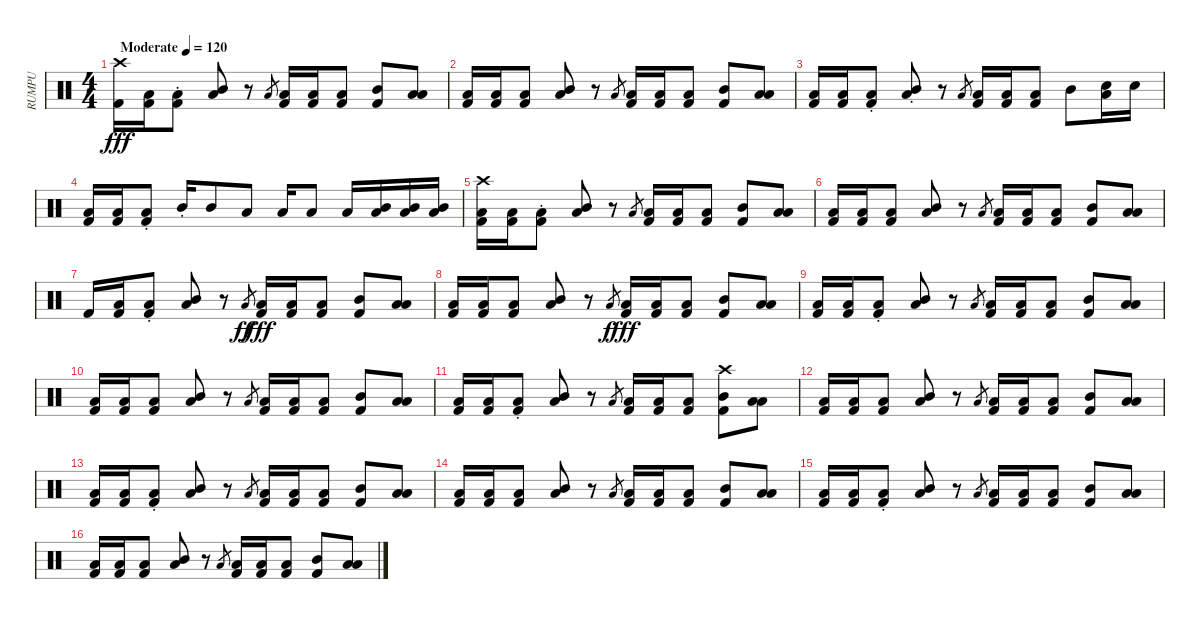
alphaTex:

\track ("RUMPU" "RUMPU") {instrument percussion}
\staff {score}
\articulation defaults
\ts (4 4)
\tempo (120 "Moderate")
\clef neutral
\ks c
("Crash high (hit)" "Kick (hit) 2").16{dy fff} ("Low Floor Tom (hit)" "Kick (hit) 2").16 ("Low Floor Tom (hit)" "Kick (hit) 2"{st}).8 ("Low Floor Tom (hit)" "Mid Tom (hit)").8 r.8 "Low Floor Tom (hit)".8{gr} ("Low Floor Tom (hit)" "Kick (hit) 2").16 ("Low Floor Tom (hit)" "Kick (hit) 2").16 ("Low Floor Tom (hit)" "Kick (hit) 2").8 ("Mid Tom (hit)" "Kick (hit) 2").8 ("Low Floor Tom (hit)" "Low Tom (hit)").8 |
("Low Floor Tom (hit)" "Kick (hit) 2").16 ("Low Floor Tom (hit)" "Kick (hit) 2").16 ("Low Floor Tom (hit)" "Kick (hit) 2").8 ("Low Floor Tom (hit)" "Mid Tom (hit)").8 r.8 "Low Floor Tom (hit)".8{gr} ("Low Floor Tom (hit)" "Kick (hit) 2").16 ("Low Floor Tom (hit)" "Kick (hit) 2").16 ("Low Floor Tom (hit)" "Kick (hit) 2").8 ("Mid Tom (hit)" "Kick (hit) 2").8 ("Low Floor Tom (hit)" "Low Tom (hit)").8 |
("Low Floor Tom (hit)" "Kick (hit) 2").16 ("Low Floor Tom (hit)" "Kick (hit) 2").16 ("Low Floor Tom (hit)" "Kick (hit) 2"{st}).8 ("Low Floor Tom (hit)"{st} "Mid Tom (hit)").8 r.8 "Low Floor Tom (hit)".8{gr} ("Low Floor Tom (hit)" "Kick (hit) 2").16 ("Low Floor Tom (hit)" "Kick (hit) 2").16 ("Low Floor Tom (hit)" "Kick (hit) 2").8 "Mid Tom (hit)".8 ("Low Floor Tom (hit)" "Electric Snare (hit)").16 "Electric Snare (hit)".16 |
("Low Floor Tom (hit)" "Kick (hit) 2").16 ("Low Floor Tom (hit)" "Kick (hit) 2").16 ("Low Floor Tom (hit)"{st} "Kick (hit) 2").8 "Mid Tom (hit)"{st}.16 "Mid Tom (hit)".8 "Low Floor Tom (hit)".8 "Low Floor Tom (hit)".16 "Low Floor Tom (hit)".8 "Low Floor Tom (hit)".16 ("Low Floor Tom (hit)" "Mid Tom (hit)").16 ("Low Floor Tom (hit)" "Mid Tom (hit)").16 ("Low Floor Tom (hit)" "Mid Tom (hit)").16 |
("Low Floor Tom (hit)" "Crash high (hit)" "Kick (hit) 2").16 ("Low Floor Tom (hit)" "Kick (hit) 2").16 ("Low Floor Tom (hit)" "Kick (hit) 2"{st}).8 ("Low Floor Tom (hit)" "Mid Tom (hit)").8 r.8 "Low Floor Tom (hit)".8{gr} ("Low Floor Tom (hit)" "Kick (hit) 2").16 ("Low Floor Tom (hit)" "Kick (hit) 2").16 ("Low Floor Tom (hit)" "Kick (hit) 2").8 ("Mid Tom (hit)" "Kick (hit) 2").8 ("Low Floor Tom (hit)" "Low Tom (hit)").8 |
("Low Floor Tom (hit)" "Kick (hit) 2").16 ("Low Floor Tom (hit)" "Kick (hit) 2").16 ("Low Floor Tom (hit)" "Kick (hit) 2").8 ("Low Floor Tom (hit)" "Mid Tom (hit)").8 r.8 "Low Floor Tom (hit)".8{gr} ("Low Floor Tom (hit)" "Kick (hit) 2").16 ("Low Floor Tom (hit)" "Kick (hit) 2").16 ("Low Floor Tom (hit)" "Kick (hit) 2").8 ("Mid Tom (hit)" "Kick (hit) 2").8 ("Low Floor Tom (hit)" "Low Tom (hit)").8 |
"Kick (hit) 2".16 ("Low Floor Tom (hit)" "Kick (hit) 2").16 ("Low Floor Tom (hit)" "Kick (hit) 2"{st}).8 ("Low Floor Tom (hit)" "Mid Tom (hit)").8 r.8 "Low Floor Tom (hit)".8{gr dy ff} ("Low Floor Tom (hit)" "Kick (hit) 2").16{dy fff} ("Low Floor Tom (hit)" "Kick (hit) 2").16 ("Low Floor Tom (hit)" "Kick (hit) 2").8 ("Mid Tom (hit)" "Kick (hit) 2").8 ("Low Floor Tom (hit)" "Low Tom (hit)").8 |
("Low Floor Tom (hit)" "Kick (hit) 2").16 ("Low Floor Tom (hit)" "Kick (hit) 2").16 ("Low Floor Tom (hit)" "Kick (hit) 2").8 ("Low Floor Tom (hit)" "Mid Tom (hit)").8 r.8 "Low Floor Tom (hit)".8{gr dy f} ("Low Floor Tom (hit)" "Kick (hit) 2").16{dy fff} ("Low Floor Tom (hit)" "Kick (hit) 2").16 ("Low Floor Tom (hit)" "Kick (hit) 2").8 ("Mid Tom (hit)" "Kick (hit) 2").8 ("Low Floor Tom (hit)" "Low Tom (hit)").8 |
("Low Floor Tom (hit)" "Kick (hit) 2").16 ("Low Floor Tom (hit)" "Kick (hit) 2").16 ("Low Floor Tom (hit)" "Kick (hit) 2"{st}).8 ("Low Floor Tom (hit)" "Mid Tom (hit)").8 r.8 "Low Floor Tom (hit)".8{gr} ("Low Floor Tom (hit)" "Kick (hit) 2").16 ("Low Floor Tom (hit)" "Kick (hit) 2").16 ("Low Floor Tom (hit)" "Kick (hit) 2").8 ("Mid Tom (hit)" "Kick (hit) 2").8 ("Low Floor Tom (hit)" "Low Tom (hit)").8 |
("Low Floor Tom (hit)" "Kick (hit) 2").16 ("Low Floor Tom (hit)" "Kick (hit) 2").16 ("Low Floor Tom (hit)" "Kick (hit) 2").8 ("Low Floor Tom (hit)" "Mid Tom (hit)").8 r.8 "Low Floor Tom (hit)".8{gr} ("Low Floor Tom (hit)" "Kick (hit) 2").16 ("Low Floor Tom (hit)" "Kick (hit) 2").16 ("Low Floor Tom (hit)" "Kick (hit) 2").8 ("Mid Tom (hit)" "Kick (hit) 2").8 ("Low Floor Tom (hit)" "Low Tom (hit)").8 |
("Low Floor Tom (hit)" "Kick (hit) 2").16 ("Low Floor Tom (hit)" "Kick (hit) 2").16 ("Low Floor Tom (hit)" "Kick (hit) 2"{st}).8 ("Low Floor Tom (hit)" "Mid Tom (hit)").8 r.8 "Low Floor Tom (hit)".8{gr} ("Low Floor Tom (hit)" "Kick (hit) 2").16 ("Low Floor Tom (hit)" "Kick (hit) 2").16 ("Low Floor Tom (hit)" "Kick (hit) 2").8 ("Mid Tom (hit)" "Crash high (hit)" "Kick (hit) 2").8 ("Low Floor Tom (hit)" "Low Tom (hit)").8 |
("Low Floor Tom (hit)" "Kick (hit) 2").16 ("Low Floor Tom (hit)" "Kick (hit) 2").16 ("Low Floor Tom (hit)" "Kick (hit) 2").8 ("Low Floor Tom (hit)" "Mid Tom (hit)").8 r.8 "Low Floor Tom (hit)".8{gr} ("Low Floor Tom (hit)" "Kick (hit) 2").16 ("Low Floor Tom (hit)" "Kick (hit) 2").16 ("Low Floor Tom (hit)" "Kick (hit) 2").8 ("Mid Tom (hit)" "Kick (hit) 2").8 ("Low Floor Tom (hit)" "Low Tom (hit)").8 |
("Low Floor Tom (hit)" "Kick (hit) 2").16 ("Low Floor Tom (hit)" "Kick (hit) 2").16 ("Low Floor Tom (hit)" "Kick (hit) 2"{st}).8 ("Low Floor Tom (hit)" "Mid Tom (hit)").8 r.8 "Low Floor Tom (hit)".8{gr} ("Low Floor Tom (hit)" "Kick (hit) 2").16 ("Low Floor Tom (hit)" "Kick (hit) 2").16 ("Low Floor Tom (hit)" "Kick (hit) 2").8 ("Mid Tom (hit)" "Kick (hit) 2").8 ("Low Floor Tom (hit)" "Low Tom (hit)").8 |
("Low Floor Tom (hit)" "Kick (hit) 2").16 ("Low Floor Tom (hit)" "Kick (hit) 2").16 ("Low Floor Tom (hit)" "Kick (hit) 2").8 ("Low Floor Tom (hit)" "Mid Tom (hit)").8 r.8 "Low Floor Tom (hit)".8{gr} ("Low Floor Tom (hit)" "Kick (hit) 2").16 ("Low Floor Tom (hit)" "Kick (hit) 2").16 ("Low Floor Tom (hit)" "Kick (hit) 2").8 ("Mid Tom (hit)" "Kick (hit) 2").8 ("Low Floor Tom (hit)" "Low Tom (hit)").8 |
("Low Floor Tom (hit)" "Kick (hit) 2").16 ("Low Floor Tom (hit)" "Kick (hit) 2").16 ("Low Floor Tom (hit)" "Kick (hit) 2"{st}).8 ("Low Floor Tom (hit)" "Mid Tom (hit)").8 r.8 "Low Floor Tom (hit)".8{gr} ("Low Floor Tom (hit)" "Kick (hit) 2").16 ("Low Floor Tom (hit)" "Kick (hit) 2").16 ("Low Floor Tom (hit)" "Kick (hit) 2").8 ("Mid Tom (hit)" "Kick (hit) 2").8 ("Low Floor Tom (hit)" "Low Tom (hit)").8 |
("Low Floor Tom (hit)" "Kick (hit) 2").16 ("Low Floor Tom (hit)" "Kick (hit) 2").16 ("Low Floor Tom (hit)" "Kick (hit) 2").8 ("Low Floor Tom (hit)" "Mid Tom (hit)").8 r.8 "Low Floor Tom (hit)".8{gr} ("Low Floor Tom (hit)" "Kick (hit) 2").16 ("Low Floor Tom (hit)" "Kick (hit) 2").16 ("Low Floor Tom (hit)" "Kick (hit) 2").8 ("Mid Tom (hit)" "Kick (hit) 2").8 ("Low Floor Tom (hit)" "Low Tom (hit)").8
